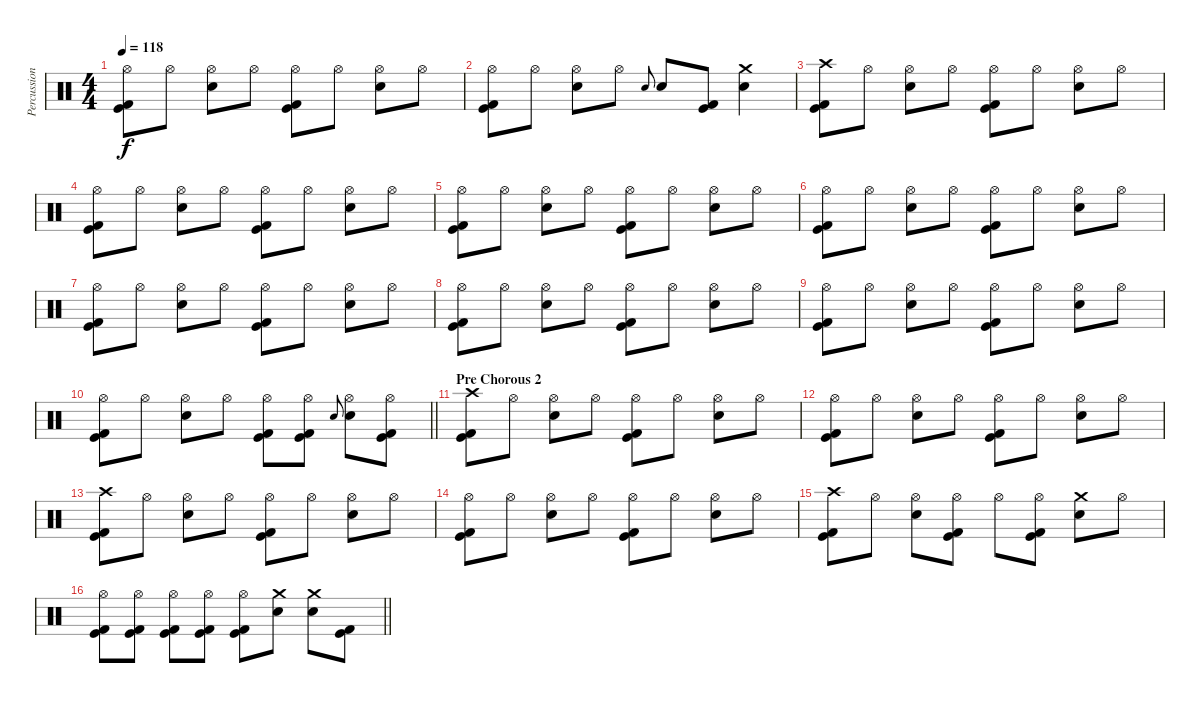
\track ("Percussion" "Percussion") {instrument percussion}
\staff {score}
\articulation defaults
\ts (4 4)
\tempo 118
\clef neutral
\ks c
("Hi-Hat (open)" "Kick (hit)" "Kick (hit) 2").8{dy f} "Hi-Hat (open)".8 ("Hi-Hat (open)" "Electric Snare (hit)").8 "Hi-Hat (open)".8 ("Hi-Hat (open)" "Kick (hit)" "Kick (hit) 2").8 "Hi-Hat (open)".8 ("Hi-Hat (open)" "Electric Snare (hit)").8 "Hi-Hat (open)".8 |
("Hi-Hat (open)" "Kick (hit)" "Kick (hit) 2").8 "Hi-Hat (open)".8 ("Hi-Hat (open)" "Electric Snare (hit)").8 "Hi-Hat (open)".8 "Electric Snare (hit)".8{gr onbeat} "Electric Snare (hit)".8 ("Kick (hit)" "Kick (hit) 2").8 ("Crash medium (hit)" "Electric Snare (hit)").4 |
("Crash high (hit)" "Kick (hit)" "Kick (hit) 2").8 "Hi-Hat (open)".8 ("Hi-Hat (open)" "Electric Snare (hit)").8 "Hi-Hat (open)".8 ("Hi-Hat (open)" "Kick (hit)" "Kick (hit) 2").8 "Hi-Hat (open)".8 ("Hi-Hat (open)" "Electric Snare (hit)").8 "Hi-Hat (open)".8 |
("Hi-Hat (open)" "Kick (hit)" "Kick (hit) 2").8 "Hi-Hat (open)".8 ("Hi-Hat (open)" "Electric Snare (hit)").8 "Hi-Hat (open)".8 ("Hi-Hat (open)" "Kick (hit)" "Kick (hit) 2").8 "Hi-Hat (open)".8 ("Hi-Hat (open)" "Electric Snare (hit)").8 "Hi-Hat (open)".8 |
("Hi-Hat (open)" "Kick (hit)" "Kick (hit) 2").8 "Hi-Hat (open)".8 ("Hi-Hat (open)" "Electric Snare (hit)").8 "Hi-Hat (open)".8 ("Hi-Hat (open)" "Kick (hit)" "Kick (hit) 2").8 "Hi-Hat (open)".8 ("Hi-Hat (open)" "Electric Snare (hit)").8 "Hi-Hat (open)".8 |
("Hi-Hat (open)" "Kick (hit)" "Kick (hit) 2").8 "Hi-Hat (open)".8 ("Hi-Hat (open)" "Electric Snare (hit)").8 "Hi-Hat (open)".8 ("Hi-Hat (open)" "Kick (hit)" "Kick (hit) 2").8 "Hi-Hat (open)".8 ("Hi-Hat (open)" "Electric Snare (hit)").8 "Hi-Hat (open)".8 |
("Hi-Hat (open)" "Kick (hit)" "Kick (hit) 2").8 "Hi-Hat (open)".8 ("Hi-Hat (open)" "Electric Snare (hit)").8 "Hi-Hat (open)".8 ("Hi-Hat (open)" "Kick (hit)" "Kick (hit) 2").8 "Hi-Hat (open)".8 ("Hi-Hat (open)" "Electric Snare (hit)").8 "Hi-Hat (open)".8 |
("Hi-Hat (open)" "Kick (hit)" "Kick (hit) 2").8 "Hi-Hat (open)".8 ("Hi-Hat (open)" "Electric Snare (hit)").8 "Hi-Hat (open)".8 ("Hi-Hat (open)" "Kick (hit)" "Kick (hit) 2").8 "Hi-Hat (open)".8 ("Hi-Hat (open)" "Electric Snare (hit)").8 "Hi-Hat (open)".8 |
("Hi-Hat (open)" "Kick (hit)" "Kick (hit) 2").8 "Hi-Hat (open)".8 ("Hi-Hat (open)" "Electric Snare (hit)").8 "Hi-Hat (open)".8 ("Hi-Hat (open)" "Kick (hit)" "Kick (hit) 2").8 "Hi-Hat (open)".8 ("Hi-Hat (open)" "Electric Snare (hit)").8 "Hi-Hat (open)".8 |
\barLineRight lightlight
("Hi-Hat (open)" "Kick (hit)" "Kick (hit) 2").8 "Hi-Hat (open)".8 ("Hi-Hat (open)" "Electric Snare (hit)").8 "Hi-Hat (open)".8 ("Hi-Hat (open)" "Kick (hit)" "Kick (hit) 2").8 ("Hi-Hat (open)" "Kick (hit)" "Kick (hit) 2").8 "Electric Snare (hit)".8{gr onbeat} ("Hi-Hat (open)" "Electric Snare (hit)").8 ("Hi-Hat (open)" "Kick (hit)" "Kick (hit) 2").8 |
\section ("" "Pre Chorous 2")
("Crash high (hit)" "Kick (hit)" "Kick (hit) 2").8 "Hi-Hat (open)".8 ("Hi-Hat (open)" "Electric Snare (hit)").8 "Hi-Hat (open)".8 ("Hi-Hat (open)" "Kick (hit)" "Kick (hit) 2").8 "Hi-Hat (open)".8 ("Hi-Hat (open)" "Electric Snare (hit)").8 "Hi-Hat (open)".8 |
("Hi-Hat (open)" "Kick (hit)" "Kick (hit) 2").8 "Hi-Hat (open)".8 ("Hi-Hat (open)" "Electric Snare (hit)").8 "Hi-Hat (open)".8 ("Hi-Hat (open)" "Kick (hit)" "Kick (hit) 2").8 "Hi-Hat (open)".8 ("Hi-Hat (open)" "Electric Snare (hit)").8 "Hi-Hat (open)".8 |
("Crash high (hit)" "Kick (hit)" "Kick (hit) 2").8 "Hi-Hat (open)".8 ("Hi-Hat (open)" "Electric Snare (hit)").8 "Hi-Hat (open)".8 ("Hi-Hat (open)" "Kick (hit)" "Kick (hit) 2").8 "Hi-Hat (open)".8 ("Hi-Hat (open)" "Electric Snare (hit)").8 "Hi-Hat (open)".8 |
("Hi-Hat (open)" "Kick (hit)" "Kick (hit) 2").8 "Hi-Hat (open)".8 ("Hi-Hat (open)" "Electric Snare (hit)").8 "Hi-Hat (open)".8 ("Hi-Hat (open)" "Kick (hit)" "Kick (hit) 2").8 "Hi-Hat (open)".8 ("Hi-Hat (open)" "Electric Snare (hit)").8 "Hi-Hat (open)".8 |
("Crash high (hit)" "Kick (hit)" "Kick (hit) 2").8 "Hi-Hat (open)".8 ("Hi-Hat (open)" "Electric Snare (hit)").8 ("Hi-Hat (open)" "Kick (hit)" "Kick (hit) 2").8 "Hi-Hat (open)".8 ("Hi-Hat (open)" "Kick (hit)" "Kick (hit) 2").8 ("Crash medium (hit)" "Electric Snare (hit)").8 "Hi-Hat (open)".8 |
\barLineRight lightlight
("Hi-Hat (open)" "Kick (hit)" "Kick (hit) 2").8 ("Hi-Hat (open)" "Kick (hit)" "Kick (hit) 2").8 ("Hi-Hat (open)" "Kick (hit)" "Kick (hit) 2").8 ("Hi-Hat (open)" "Kick (hit)" "Kick (hit) 2").8 ("Hi-Hat (open)" "Kick (hit)" "Kick (hit) 2").8 ("Crash medium (hit)" "Electric Snare (hit)").8 ("Crash medium (hit)" "Electric Snare (hit)").8 ("Kick (hit)" "Kick (hit) 2").8
